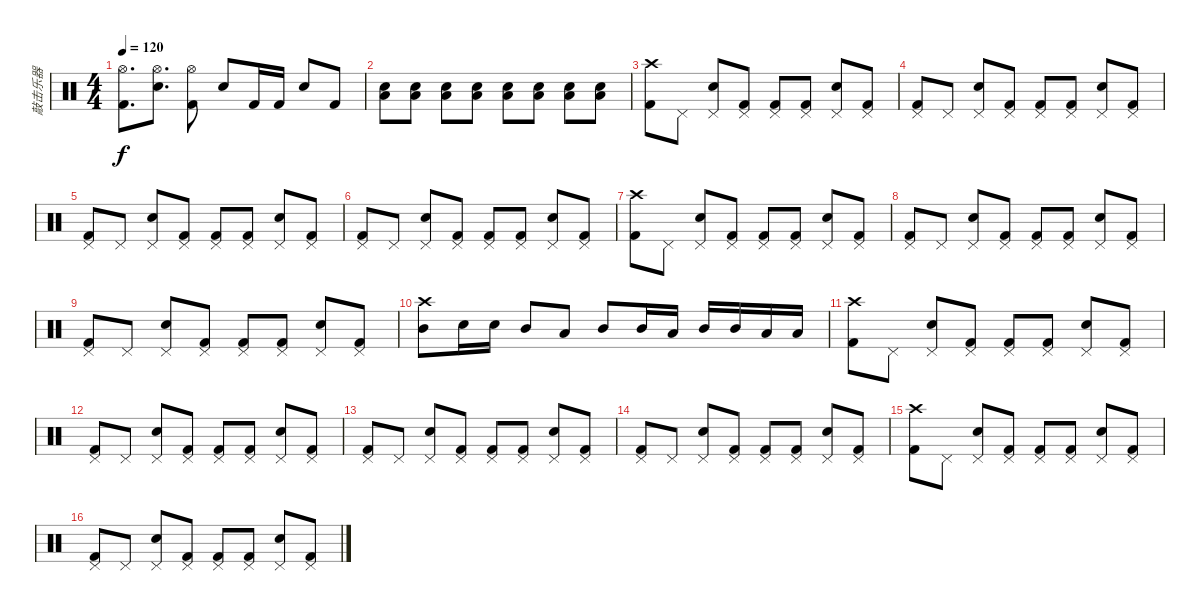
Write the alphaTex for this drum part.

\track ("敲击乐器" "敲击乐器") {instrument percussion}
\staff {score}
\articulation defaults
\ts (4 4)
\tempo 120
\clef neutral
\ks c
("Hi-Hat (open)" "Kick (hit) 2").8{d dy f} ("Hi-Hat (open)" "Snare (hit) 2").8{d} ("Hi-Hat (open)" "Kick (hit) 2").8 "Snare (hit) 2".8 "Kick (hit) 2".16 "Kick (hit) 2".16 "Snare (hit) 2".8 "Kick (hit) 2".8 |
("Snare (hit) 2" "Low Floor Tom (hit)").8 ("Snare (hit) 2" "Low Floor Tom (hit)").8 ("Snare (hit) 2" "Low Floor Tom (hit)").8 ("Snare (hit) 2" "Low Floor Tom (hit)").8 ("Snare (hit) 2" "Low Floor Tom (hit)").8 ("Snare (hit) 2" "Low Floor Tom (hit)").8 ("Snare (hit) 2" "Low Floor Tom (hit)").8 ("Snare (hit) 2" "Low Floor Tom (hit)").8 |
("Crash high (hit)" "Kick (hit) 2").8 "Pedal Hi-Hat (hit)".8 ("Pedal Hi-Hat (hit)" "Snare (hit) 2").8 ("Pedal Hi-Hat (hit)" "Kick (hit) 2").8 ("Pedal Hi-Hat (hit)" "Kick (hit) 2").8 ("Pedal Hi-Hat (hit)" "Kick (hit) 2").8 ("Pedal Hi-Hat (hit)" "Snare (hit) 2").8 ("Pedal Hi-Hat (hit)" "Kick (hit) 2").8 |
("Pedal Hi-Hat (hit)" "Kick (hit) 2").8 "Pedal Hi-Hat (hit)".8 ("Pedal Hi-Hat (hit)" "Snare (hit) 2").8 ("Pedal Hi-Hat (hit)" "Kick (hit) 2").8 ("Pedal Hi-Hat (hit)" "Kick (hit) 2").8 ("Pedal Hi-Hat (hit)" "Kick (hit) 2").8 ("Pedal Hi-Hat (hit)" "Snare (hit) 2").8 ("Pedal Hi-Hat (hit)" "Kick (hit) 2").8 |
("Pedal Hi-Hat (hit)" "Kick (hit) 2").8 "Pedal Hi-Hat (hit)".8 ("Pedal Hi-Hat (hit)" "Snare (hit) 2").8 ("Pedal Hi-Hat (hit)" "Kick (hit) 2").8 ("Pedal Hi-Hat (hit)" "Kick (hit) 2").8 ("Pedal Hi-Hat (hit)" "Kick (hit) 2").8 ("Pedal Hi-Hat (hit)" "Snare (hit) 2").8 ("Pedal Hi-Hat (hit)" "Kick (hit) 2").8 |
("Pedal Hi-Hat (hit)" "Kick (hit) 2").8 "Pedal Hi-Hat (hit)".8 ("Pedal Hi-Hat (hit)" "Snare (hit) 2").8 ("Pedal Hi-Hat (hit)" "Kick (hit) 2").8 ("Pedal Hi-Hat (hit)" "Kick (hit) 2").8 ("Pedal Hi-Hat (hit)" "Kick (hit) 2").8 ("Pedal Hi-Hat (hit)" "Snare (hit) 2").8 ("Pedal Hi-Hat (hit)" "Kick (hit) 2").8 |
("Crash high (hit)" "Kick (hit) 2").8 "Pedal Hi-Hat (hit)".8 ("Pedal Hi-Hat (hit)" "Snare (hit) 2").8 ("Pedal Hi-Hat (hit)" "Kick (hit) 2").8 ("Pedal Hi-Hat (hit)" "Kick (hit) 2").8 ("Pedal Hi-Hat (hit)" "Kick (hit) 2").8 ("Pedal Hi-Hat (hit)" "Snare (hit) 2").8 ("Pedal Hi-Hat (hit)" "Kick (hit) 2").8 |
("Pedal Hi-Hat (hit)" "Kick (hit) 2").8 "Pedal Hi-Hat (hit)".8 ("Pedal Hi-Hat (hit)" "Snare (hit) 2").8 ("Pedal Hi-Hat (hit)" "Kick (hit) 2").8 ("Pedal Hi-Hat (hit)" "Kick (hit) 2").8 ("Pedal Hi-Hat (hit)" "Kick (hit) 2").8 ("Pedal Hi-Hat (hit)" "Snare (hit) 2").8 ("Pedal Hi-Hat (hit)" "Kick (hit) 2").8 |
("Pedal Hi-Hat (hit)" "Kick (hit) 2").8 "Pedal Hi-Hat (hit)".8 ("Pedal Hi-Hat (hit)" "Snare (hit) 2").8 ("Pedal Hi-Hat (hit)" "Kick (hit) 2").8 ("Pedal Hi-Hat (hit)" "Kick (hit) 2").8 ("Pedal Hi-Hat (hit)" "Kick (hit) 2").8 ("Pedal Hi-Hat (hit)" "Snare (hit) 2").8 ("Pedal Hi-Hat (hit)" "Kick (hit) 2").8 |
("Crash high (hit)" "Mid Tom (hit)").8 "Snare (hit) 2".16 "Snare (hit) 2".16 "Mid Tom (hit)".8 "Low Tom (hit)".8 "Mid Tom (hit)".8 "Mid Tom (hit)".16 "Low Tom (hit)".16 "Mid Tom (hit)".16 "Mid Tom (hit)".16 "Low Tom (hit)".16 "Low Tom (hit)".16 |
("Crash high (hit)" "Kick (hit) 2").8 "Pedal Hi-Hat (hit)".8 ("Pedal Hi-Hat (hit)" "Snare (hit) 2").8 ("Pedal Hi-Hat (hit)" "Kick (hit) 2").8 ("Pedal Hi-Hat (hit)" "Kick (hit) 2").8 ("Pedal Hi-Hat (hit)" "Kick (hit) 2").8 ("Pedal Hi-Hat (hit)" "Snare (hit) 2").8 ("Pedal Hi-Hat (hit)" "Kick (hit) 2").8 |
("Pedal Hi-Hat (hit)" "Kick (hit) 2").8 "Pedal Hi-Hat (hit)".8 ("Pedal Hi-Hat (hit)" "Snare (hit) 2").8 ("Pedal Hi-Hat (hit)" "Kick (hit) 2").8 ("Pedal Hi-Hat (hit)" "Kick (hit) 2").8 ("Pedal Hi-Hat (hit)" "Kick (hit) 2").8 ("Pedal Hi-Hat (hit)" "Snare (hit) 2").8 ("Pedal Hi-Hat (hit)" "Kick (hit) 2").8 |
("Pedal Hi-Hat (hit)" "Kick (hit) 2").8 "Pedal Hi-Hat (hit)".8 ("Pedal Hi-Hat (hit)" "Snare (hit) 2").8 ("Pedal Hi-Hat (hit)" "Kick (hit) 2").8 ("Pedal Hi-Hat (hit)" "Kick (hit) 2").8 ("Pedal Hi-Hat (hit)" "Kick (hit) 2").8 ("Pedal Hi-Hat (hit)" "Snare (hit) 2").8 ("Pedal Hi-Hat (hit)" "Kick (hit) 2").8 |
("Pedal Hi-Hat (hit)" "Kick (hit) 2").8 "Pedal Hi-Hat (hit)".8 ("Pedal Hi-Hat (hit)" "Snare (hit) 2").8 ("Pedal Hi-Hat (hit)" "Kick (hit) 2").8 ("Pedal Hi-Hat (hit)" "Kick (hit) 2").8 ("Pedal Hi-Hat (hit)" "Kick (hit) 2").8 ("Pedal Hi-Hat (hit)" "Snare (hit) 2").8 ("Pedal Hi-Hat (hit)" "Kick (hit) 2").8 |
("Crash high (hit)" "Kick (hit) 2").8 "Pedal Hi-Hat (hit)".8 ("Pedal Hi-Hat (hit)" "Snare (hit) 2").8 ("Pedal Hi-Hat (hit)" "Kick (hit) 2").8 ("Pedal Hi-Hat (hit)" "Kick (hit) 2").8 ("Pedal Hi-Hat (hit)" "Kick (hit) 2").8 ("Pedal Hi-Hat (hit)" "Snare (hit) 2").8 ("Pedal Hi-Hat (hit)" "Kick (hit) 2").8 |
("Pedal Hi-Hat (hit)" "Kick (hit) 2").8 "Pedal Hi-Hat (hit)".8 ("Pedal Hi-Hat (hit)" "Snare (hit) 2").8 ("Pedal Hi-Hat (hit)" "Kick (hit) 2").8 ("Pedal Hi-Hat (hit)" "Kick (hit) 2").8 ("Pedal Hi-Hat (hit)" "Kick (hit) 2").8 ("Pedal Hi-Hat (hit)" "Snare (hit) 2").8 ("Pedal Hi-Hat (hit)" "Kick (hit) 2").8
